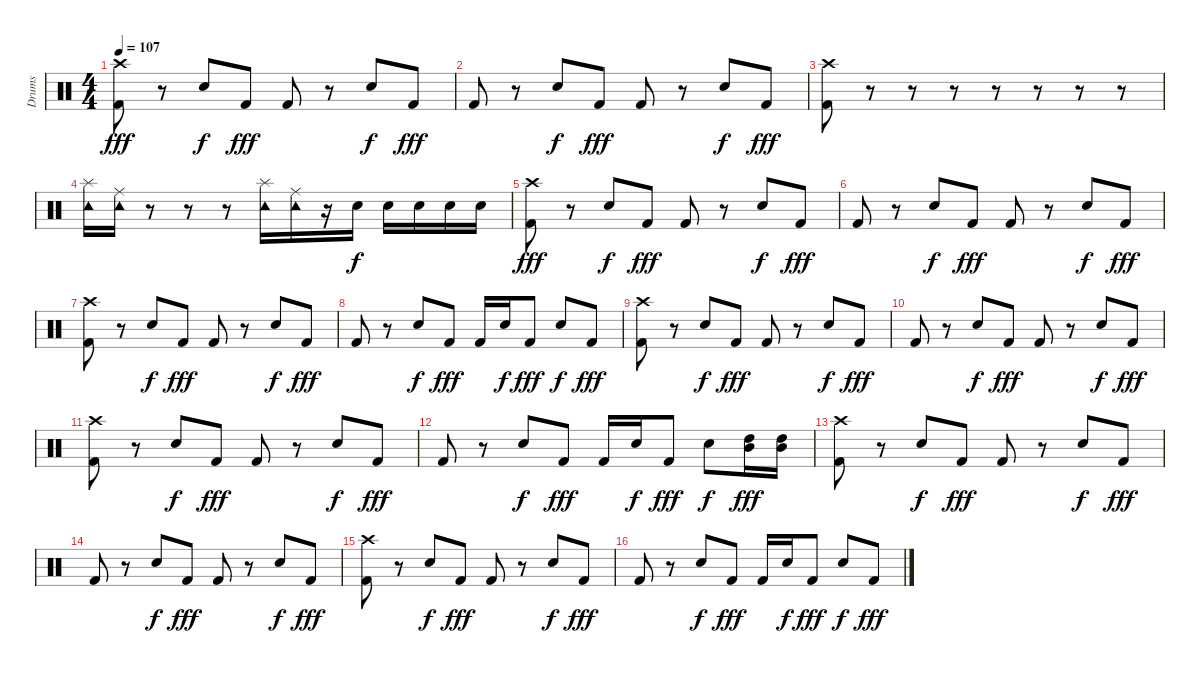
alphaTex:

\track ("Drums" "Drums") {instrument percussion}
\staff {score}
\articulation defaults
\ts (4 4)
\tempo 107
\clef neutral
\ks c
("Crash high (hit)" "Kick (hit) 2").8{dy fff} r.8 "Snare (hit) 2".8{dy f} "Kick (hit) 2".8{dy fff} "Kick (hit) 2".8 r.8 "Snare (hit) 2".8{dy f} "Kick (hit) 2".8{dy fff} |
"Kick (hit) 2".8 r.8 "Snare (hit) 2".8{dy f} "Kick (hit) 2".8{dy fff} "Kick (hit) 2".8 r.8 "Snare (hit) 2".8{dy f} "Kick (hit) 2".8{dy fff} |
("Crash high (hit)" "Kick (hit) 2").8 r.8 r.8 r.8 r.8 r.8 r.8 r.8 |
("Splash (hit)" "Tambourine (hit)").16 ("Ride (middle)" "Tambourine (hit)").16 r.8 r.8 r.8 ("Splash (hit)" "Tambourine (hit)").16 ("Ride (middle)" "Tambourine (hit)").16 r.16 "Snare (hit) 2".16{dy f} "Snare (hit) 2".16 "Snare (hit) 2".16 "Snare (hit) 2".16 "Snare (hit) 2".16 |
("Crash high (hit)" "Kick (hit) 2").8{dy fff} r.8 "Snare (hit) 2".8{dy f} "Kick (hit) 2".8{dy fff} "Kick (hit) 2".8 r.8 "Snare (hit) 2".8{dy f} "Kick (hit) 2".8{dy fff} |
"Kick (hit) 2".8 r.8 "Snare (hit) 2".8{dy f} "Kick (hit) 2".8{dy fff} "Kick (hit) 2".8 r.8 "Snare (hit) 2".8{dy f} "Kick (hit) 2".8{dy fff} |
("Crash high (hit)" "Kick (hit) 2").8 r.8 "Snare (hit) 2".8{dy f} "Kick (hit) 2".8{dy fff} "Kick (hit) 2".8 r.8 "Snare (hit) 2".8{dy f} "Kick (hit) 2".8{dy fff} |
"Kick (hit) 2".8 r.8 "Snare (hit) 2".8{dy f} "Kick (hit) 2".8{dy fff} "Kick (hit) 2".16 "Snare (hit) 2".16{dy f} "Kick (hit) 2".8{dy fff} "Snare (hit) 2".8{dy f} "Kick (hit) 2".8{dy fff} |
("Crash high (hit)" "Kick (hit) 2").8 r.8 "Snare (hit) 2".8{dy f} "Kick (hit) 2".8{dy fff} "Kick (hit) 2".8 r.8 "Snare (hit) 2".8{dy f} "Kick (hit) 2".8{dy fff} |
"Kick (hit) 2".8 r.8 "Snare (hit) 2".8{dy f} "Kick (hit) 2".8{dy fff} "Kick (hit) 2".8 r.8 "Snare (hit) 2".8{dy f} "Kick (hit) 2".8{dy fff} |
("Crash high (hit)" "Kick (hit) 2").8 r.8 "Snare (hit) 2".8{dy f} "Kick (hit) 2".8{dy fff} "Kick (hit) 2".8 r.8 "Snare (hit) 2".8{dy f} "Kick (hit) 2".8{dy fff} |
"Kick (hit) 2".8 r.8 "Snare (hit) 2".8{dy f} "Kick (hit) 2".8{dy fff} "Kick (hit) 2".16 "Snare (hit) 2".16{dy f} "Kick (hit) 2".8{dy fff} "Snare (hit) 2".8{dy f} ("High Tom (hit)" "Mid Tom (hit)").16{dy fff} ("High Tom (hit)" "Mid Tom (hit)").16 |
("Crash high (hit)" "Kick (hit) 2").8 r.8 "Snare (hit) 2".8{dy f} "Kick (hit) 2".8{dy fff} "Kick (hit) 2".8 r.8 "Snare (hit) 2".8{dy f} "Kick (hit) 2".8{dy fff} |
"Kick (hit) 2".8 r.8 "Snare (hit) 2".8{dy f} "Kick (hit) 2".8{dy fff} "Kick (hit) 2".8 r.8 "Snare (hit) 2".8{dy f} "Kick (hit) 2".8{dy fff} |
("Crash high (hit)" "Kick (hit) 2").8 r.8 "Snare (hit) 2".8{dy f} "Kick (hit) 2".8{dy fff} "Kick (hit) 2".8 r.8 "Snare (hit) 2".8{dy f} "Kick (hit) 2".8{dy fff} |
"Kick (hit) 2".8 r.8 "Snare (hit) 2".8{dy f} "Kick (hit) 2".8{dy fff} "Kick (hit) 2".16 "Snare (hit) 2".16{dy f} "Kick (hit) 2".8{dy fff} "Snare (hit) 2".8{dy f} "Kick (hit) 2".8{dy fff}
